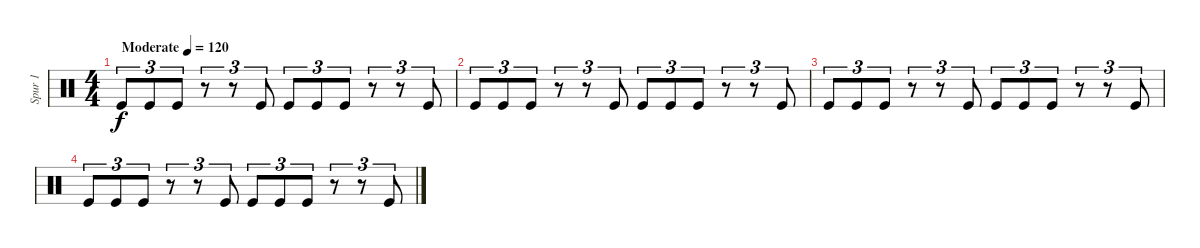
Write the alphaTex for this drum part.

\track ("Spur 1" "Spur 1") {instrument percussion}
\staff {score}
\articulation defaults
\ts (4 4)
\tempo (120 "Moderate")
\clef neutral
\ks c "Kick (hit)".8{tu (3 2) dy f} "Kick (hit)".8{tu (3 2)} "Kick (hit)".8{tu (3 2)}
r.8{tu (3 2)} r.8{tu (3 2)} "Kick (hit)".8{tu (3 2)} "Kick (hit)".8{tu (3 2)} "Kick (hit)".8{tu (3 2)} "Kick (hit)".8{tu (3 2)} r.8{tu (3 2)} r.8{tu (3 2)} "Kick (hit)".8{tu (3 2)} |
"Kick (hit)".8{tu (3 2)} "Kick (hit)".8{tu (3 2)} "Kick (hit)".8{tu (3 2)} r.8{tu (3 2)} r.8{tu (3 2)} "Kick (hit)".8{tu (3 2)} "Kick (hit)".8{tu (3 2)} "Kick (hit)".8{tu (3 2)} "Kick (hit)".8{tu (3 2)} r.8{tu (3 2)} r.8{tu (3 2)} "Kick (hit)".8{tu (3 2)} |
"Kick (hit)".8{tu (3 2)} "Kick (hit)".8{tu (3 2)} "Kick (hit)".8{tu (3 2)} r.8{tu (3 2)} r.8{tu (3 2)} "Kick (hit)".8{tu (3 2)} "Kick (hit)".8{tu (3 2)} "Kick (hit)".8{tu (3 2)} "Kick (hit)".8{tu (3 2)} r.8{tu (3 2)} r.8{tu (3 2)} "Kick (hit)".8{tu (3 2)} |
"Kick (hit)".8{tu (3 2)} "Kick (hit)".8{tu (3 2)} "Kick (hit)".8{tu (3 2)} r.8{tu (3 2)} r.8{tu (3 2)} "Kick (hit)".8{tu (3 2)} "Kick (hit)".8{tu (3 2)} "Kick (hit)".8{tu (3 2)} "Kick (hit)".8{tu (3 2)} r.8{tu (3 2)} r.8{tu (3 2)} "Kick (hit)".8{tu (3 2)}
